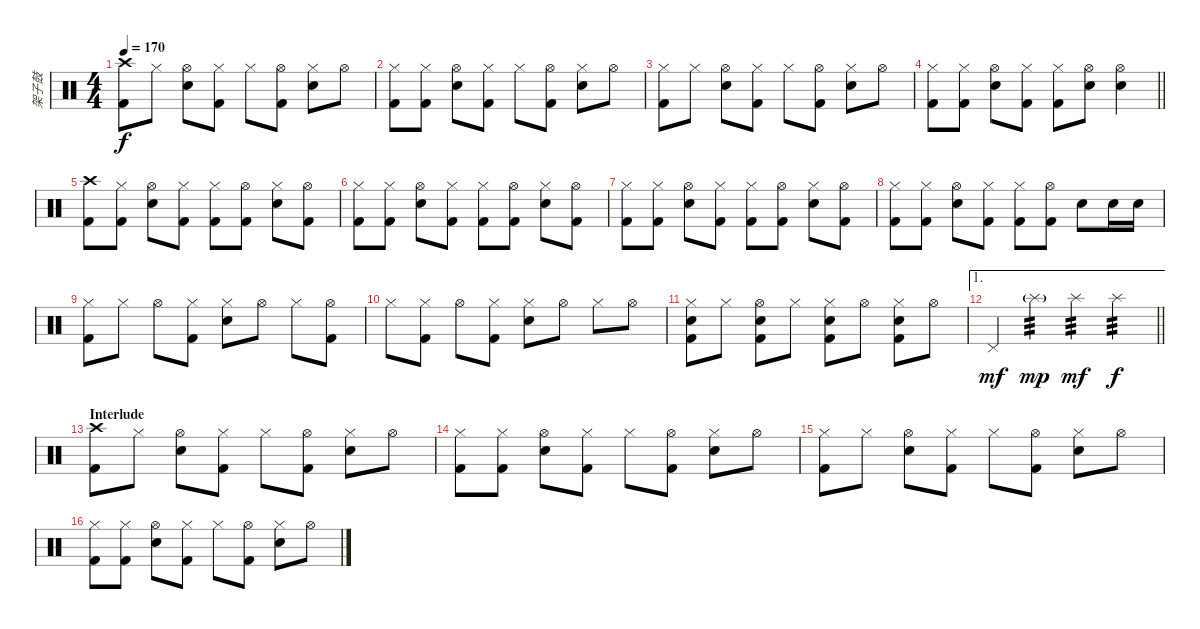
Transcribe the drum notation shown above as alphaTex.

\track ("架子鼓" "架子鼓") {instrument percussion}
\staff {score}
\articulation defaults
\ts (4 4)
\tempo 170
\clef neutral
\ks c
("Crash high (hit)" "Kick (hit) 2").8{dy f} "Hi-Hat (closed)".8 ("Hi-Hat (open)" "Snare (hit) 2").8 ("Hi-Hat (closed)" "Kick (hit) 2").8 "Hi-Hat (closed)".8 ("Hi-Hat (open)" "Kick (hit) 2").8 ("Hi-Hat (closed)" "Snare (hit) 2").8 "Hi-Hat (open)".8 |
("Hi-Hat (closed)" "Kick (hit) 2").8 ("Hi-Hat (closed)" "Kick (hit) 2").8 ("Hi-Hat (open)" "Snare (hit) 2").8 ("Hi-Hat (closed)" "Kick (hit) 2").8 "Hi-Hat (closed)".8 ("Hi-Hat (open)" "Kick (hit) 2").8 ("Hi-Hat (closed)" "Snare (hit) 2").8 "Hi-Hat (open)".8 |
("Hi-Hat (closed)" "Kick (hit) 2").8 "Hi-Hat (closed)".8 ("Hi-Hat (open)" "Snare (hit) 2").8 ("Hi-Hat (closed)" "Kick (hit) 2").8 "Hi-Hat (closed)".8 ("Hi-Hat (open)" "Kick (hit) 2").8 ("Hi-Hat (closed)" "Snare (hit) 2").8 "Hi-Hat (open)".8 |
\barLineRight lightlight
("Hi-Hat (closed)" "Kick (hit) 2").8 ("Hi-Hat (closed)" "Kick (hit) 2").8 ("Hi-Hat (open)" "Snare (hit) 2").8 ("Hi-Hat (closed)" "Kick (hit) 2").8 ("Hi-Hat (closed)" "Kick (hit) 2").8 ("Hi-Hat (open)" "Snare (hit) 2").8 ("Hi-Hat (open)" "Snare (hit) 2").4 |
("Crash high (hit)" "Kick (hit) 2").8 ("Hi-Hat (closed)" "Kick (hit) 2").8 ("Hi-Hat (open)" "Snare (hit) 2").8 ("Hi-Hat (closed)" "Kick (hit) 2").8 ("Hi-Hat (closed)" "Kick (hit) 2").8 ("Hi-Hat (open)" "Kick (hit) 2").8 ("Hi-Hat (closed)" "Snare (hit) 2").8 ("Hi-Hat (open)" "Kick (hit) 2").8 |
("Hi-Hat (closed)" "Kick (hit) 2").8 ("Hi-Hat (closed)" "Kick (hit) 2").8 ("Hi-Hat (open)" "Snare (hit) 2").8 ("Hi-Hat (closed)" "Kick (hit) 2").8 ("Hi-Hat (closed)" "Kick (hit) 2").8 ("Hi-Hat (open)" "Kick (hit) 2").8 ("Hi-Hat (closed)" "Snare (hit) 2").8 ("Hi-Hat (open)" "Kick (hit) 2").8 |
("Hi-Hat (closed)" "Kick (hit) 2").8 ("Hi-Hat (closed)" "Kick (hit) 2").8 ("Hi-Hat (open)" "Snare (hit) 2").8 ("Hi-Hat (closed)" "Kick (hit) 2").8 ("Hi-Hat (closed)" "Kick (hit) 2").8 ("Hi-Hat (open)" "Kick (hit) 2").8 ("Hi-Hat (closed)" "Snare (hit) 2").8 ("Hi-Hat (open)" "Kick (hit) 2").8 |
("Hi-Hat (closed)" "Kick (hit) 2").8 ("Hi-Hat (closed)" "Kick (hit) 2").8 ("Hi-Hat (open)" "Snare (hit) 2").8 ("Hi-Hat (closed)" "Kick (hit) 2").8 ("Hi-Hat (closed)" "Kick (hit) 2").8 ("Hi-Hat (open)" "Kick (hit) 2").8 "Snare (hit) 2".8 "Snare (hit) 2".16 "Snare (hit) 2".16 |
("Hi-Hat (closed)" "Kick (hit) 2").8 "Hi-Hat (closed)".8 "Hi-Hat (open)".8 ("Hi-Hat (closed)" "Kick (hit) 2").8 ("Hi-Hat (closed)" "Snare (hit) 2").8 "Hi-Hat (open)".8 "Hi-Hat (closed)".8 ("Hi-Hat (open)" "Kick (hit) 2").8 |
"Hi-Hat (closed)".8 ("Hi-Hat (closed)" "Kick (hit) 2").8 "Hi-Hat (open)".8 ("Hi-Hat (closed)" "Kick (hit) 2").8 ("Hi-Hat (closed)" "Snare (hit) 2").8 "Hi-Hat (open)".8 "Hi-Hat (closed)".8 "Hi-Hat (open)".8 |
("Hi-Hat (closed)" "Snare (hit) 2" "Kick (hit) 2").8 "Hi-Hat (closed)".8 ("Hi-Hat (open)" "Snare (hit) 2" "Kick (hit) 2").8 "Hi-Hat (closed)".8 ("Hi-Hat (closed)" "Snare (hit) 2" "Kick (hit) 2").8 "Hi-Hat (open)".8 ("Hi-Hat (closed)" "Snare (hit) 2" "Kick (hit) 2").8 "Hi-Hat (open)".8 |
\ae 1
\barLineRight lightlight "Pedal Hi-Hat (hit)".4{dy mf} "Splash (hit)"{g}.4{tp 3 dy mp} "Splash (hit)".4{tp 3 dy mf} "Splash (hit)".4{tp 3 dy f}
|
\section ("" "Interlude")
("Crash high (hit)" "Kick (hit) 2").8 "Hi-Hat (closed)".8 ("Hi-Hat (open)" "Snare (hit) 2").8 ("Hi-Hat (closed)" "Kick (hit) 2").8 "Hi-Hat (closed)".8 ("Hi-Hat (open)" "Kick (hit) 2").8 ("Hi-Hat (closed)" "Snare (hit) 2").8 "Hi-Hat (open)".8 |
("Hi-Hat (closed)" "Kick (hit) 2").8 ("Hi-Hat (closed)" "Kick (hit) 2").8 ("Hi-Hat (open)" "Snare (hit) 2").8 ("Hi-Hat (closed)" "Kick (hit) 2").8 "Hi-Hat (closed)".8 ("Hi-Hat (open)" "Kick (hit) 2").8 ("Hi-Hat (closed)" "Snare (hit) 2").8 "Hi-Hat (open)".8 |
("Hi-Hat (closed)" "Kick (hit) 2").8 "Hi-Hat (closed)".8 ("Hi-Hat (open)" "Snare (hit) 2").8 ("Hi-Hat (closed)" "Kick (hit) 2").8 "Hi-Hat (closed)".8 ("Hi-Hat (open)" "Kick (hit) 2").8 ("Hi-Hat (closed)" "Snare (hit) 2").8 "Hi-Hat (open)".8 |
("Hi-Hat (closed)" "Kick (hit) 2").8 ("Hi-Hat (closed)" "Kick (hit) 2").8 ("Hi-Hat (open)" "Snare (hit) 2").8 ("Hi-Hat (closed)" "Kick (hit) 2").8 "Hi-Hat (closed)".8 ("Hi-Hat (open)" "Kick (hit) 2").8 ("Hi-Hat (closed)" "Snare (hit) 2").8 "Hi-Hat (open)".8
